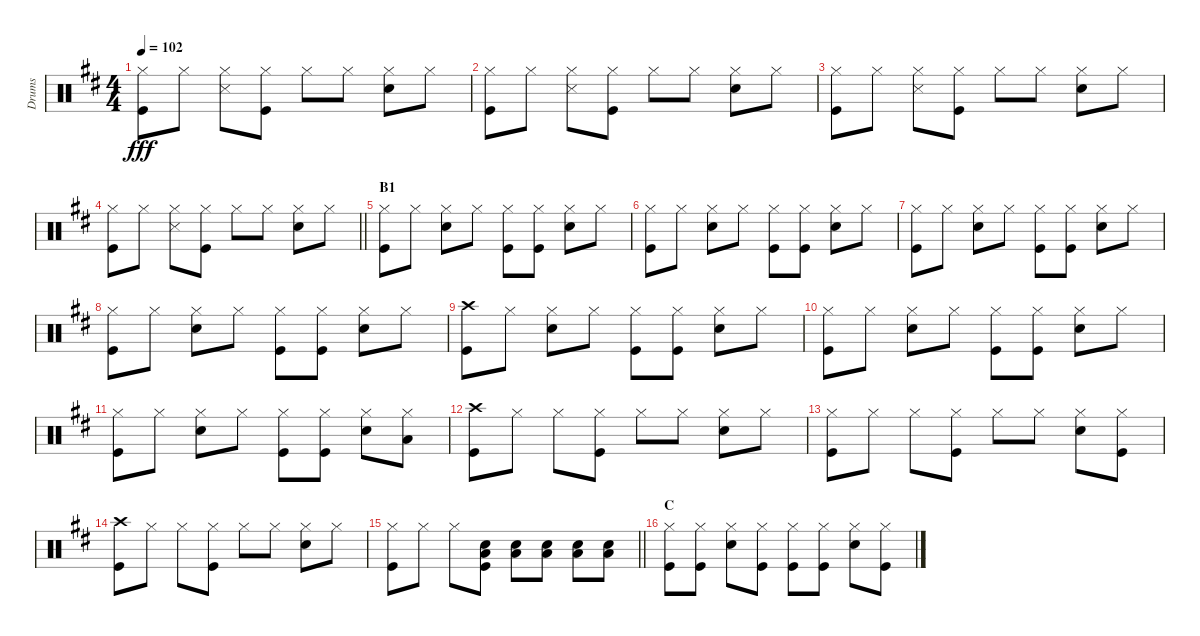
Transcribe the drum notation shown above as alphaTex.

\track ("Drums" "Drums") {instrument percussion}
\staff {score}
\articulation defaults
\ts (4 4)
\tempo 102
\clef neutral
\ks d
("Hi-Hat (closed)" "Kick (hit)").8{dy fff} "Hi-Hat (closed)".8 ("Hi-Hat (closed)" "Snare (side stick) 3").8 ("Hi-Hat (closed)" "Kick (hit)").8 "Hi-Hat (closed)".8 "Hi-Hat (closed)".8 ("Hi-Hat (closed)" "Snare (hit) 2").8 "Hi-Hat (closed)".8 |
("Hi-Hat (closed)" "Kick (hit)").8 "Hi-Hat (closed)".8 ("Hi-Hat (closed)" "Snare (side stick) 3").8 ("Hi-Hat (closed)" "Kick (hit)").8 "Hi-Hat (closed)".8 "Hi-Hat (closed)".8 ("Hi-Hat (closed)" "Snare (hit) 2").8 "Hi-Hat (closed)".8 |
("Hi-Hat (closed)" "Kick (hit)").8 "Hi-Hat (closed)".8 ("Hi-Hat (closed)" "Snare (side stick) 3").8 ("Hi-Hat (closed)" "Kick (hit)").8 "Hi-Hat (closed)".8 "Hi-Hat (closed)".8 ("Hi-Hat (closed)" "Snare (hit) 2").8 "Hi-Hat (closed)".8 |
\barLineRight lightlight
("Hi-Hat (closed)" "Kick (hit)").8 "Hi-Hat (closed)".8 ("Hi-Hat (closed)" "Snare (side stick) 3").8 ("Hi-Hat (closed)" "Kick (hit)").8 "Hi-Hat (closed)".8 "Hi-Hat (closed)".8 ("Hi-Hat (closed)" "Snare (hit) 2").8 "Hi-Hat (closed)".8 |
\section ("" "B1")
("Hi-Hat (closed)" "Kick (hit)").8 "Hi-Hat (closed)".8 ("Hi-Hat (closed)" "Snare (hit) 2").8 "Hi-Hat (closed)".8 ("Hi-Hat (closed)" "Kick (hit)").8 ("Hi-Hat (closed)" "Kick (hit)").8 ("Hi-Hat (closed)" "Snare (hit) 2").8 "Hi-Hat (closed)".8 |
("Hi-Hat (closed)" "Kick (hit)").8 "Hi-Hat (closed)".8 ("Hi-Hat (closed)" "Snare (hit) 2").8 "Hi-Hat (closed)".8 ("Hi-Hat (closed)" "Kick (hit)").8 ("Hi-Hat (closed)" "Kick (hit)").8 ("Hi-Hat (closed)" "Snare (hit) 2").8 "Hi-Hat (closed)".8 |
("Hi-Hat (closed)" "Kick (hit)").8 "Hi-Hat (closed)".8 ("Hi-Hat (closed)" "Snare (hit) 2").8 "Hi-Hat (closed)".8 ("Hi-Hat (closed)" "Kick (hit)").8 ("Hi-Hat (closed)" "Kick (hit)").8 ("Hi-Hat (closed)" "Snare (hit) 2").8 "Hi-Hat (closed)".8 |
("Hi-Hat (closed)" "Kick (hit)").8 "Hi-Hat (closed)".8 ("Hi-Hat (closed)" "Snare (hit) 2").8 "Hi-Hat (closed)".8 ("Hi-Hat (closed)" "Kick (hit)").8 ("Hi-Hat (closed)" "Kick (hit)").8 ("Hi-Hat (closed)" "Snare (hit) 2").8 "Hi-Hat (closed)".8 |
("Crash high (hit)" "Kick (hit)").8 "Hi-Hat (closed)".8 ("Hi-Hat (closed)" "Snare (hit) 2").8 "Hi-Hat (closed)".8 ("Hi-Hat (closed)" "Kick (hit)").8 ("Hi-Hat (closed)" "Kick (hit)").8 ("Hi-Hat (closed)" "Snare (hit) 2").8 "Hi-Hat (closed)".8 |
("Hi-Hat (closed)" "Kick (hit)").8 "Hi-Hat (closed)".8 ("Hi-Hat (closed)" "Snare (hit) 2").8 "Hi-Hat (closed)".8 ("Hi-Hat (closed)" "Kick (hit)").8 ("Hi-Hat (closed)" "Kick (hit)").8 ("Hi-Hat (closed)" "Snare (hit) 2").8 "Hi-Hat (closed)".8 |
("Hi-Hat (closed)" "Kick (hit)").8 "Hi-Hat (closed)".8 ("Hi-Hat (closed)" "Snare (hit) 2").8 "Hi-Hat (closed)".8 ("Hi-Hat (closed)" "Kick (hit)").8 ("Hi-Hat (closed)" "Kick (hit)").8 ("Hi-Hat (closed)" "Snare (hit) 2").8 ("Hi-Hat (closed)" "Low Tom (hit)").8 |
("Crash high (hit)" "Kick (hit)").8 "Hi-Hat (closed)".8 "Hi-Hat (closed)".8 ("Hi-Hat (closed)" "Kick (hit)").8 "Hi-Hat (closed)".8 "Hi-Hat (closed)".8 ("Hi-Hat (closed)" "Snare (hit) 2").8 "Hi-Hat (closed)".8 |
("Hi-Hat (closed)" "Kick (hit)").8 "Hi-Hat (closed)".8 "Hi-Hat (closed)".8 ("Hi-Hat (closed)" "Kick (hit)").8 "Hi-Hat (closed)".8 "Hi-Hat (closed)".8 ("Hi-Hat (closed)" "Snare (hit) 2").8 ("Hi-Hat (closed)" "Kick (hit)").8 |
("Crash high (hit)" "Kick (hit)").8 "Hi-Hat (closed)".8 "Hi-Hat (closed)".8 ("Hi-Hat (closed)" "Kick (hit)").8 "Hi-Hat (closed)".8 "Hi-Hat (closed)".8 ("Hi-Hat (closed)" "Snare (hit) 2").8 "Hi-Hat (closed)".8 |
\barLineRight lightlight
("Hi-Hat (closed)" "Kick (hit)").8 "Hi-Hat (closed)".8 "Hi-Hat (closed)".8 ("Low Tom (hit)" "Snare (hit) 2" "Kick (hit)").8 ("Low Tom (hit)" "Snare (hit) 2").8 ("Low Tom (hit)" "Snare (hit) 2").8 ("Low Tom (hit)" "Snare (hit) 2").8 ("Low Tom (hit)" "Snare (hit) 2").8 |
\section ("" "C")
("Hi-Hat (closed)" "Kick (hit)").8 ("Hi-Hat (closed)" "Kick (hit)").8 ("Hi-Hat (closed)" "Snare (hit) 2").8 ("Hi-Hat (closed)" "Kick (hit)").8 ("Hi-Hat (closed)" "Kick (hit)").8 ("Hi-Hat (closed)" "Kick (hit)").8 ("Hi-Hat (closed)" "Snare (hit) 2").8 ("Hi-Hat (closed)" "Kick (hit)").8
